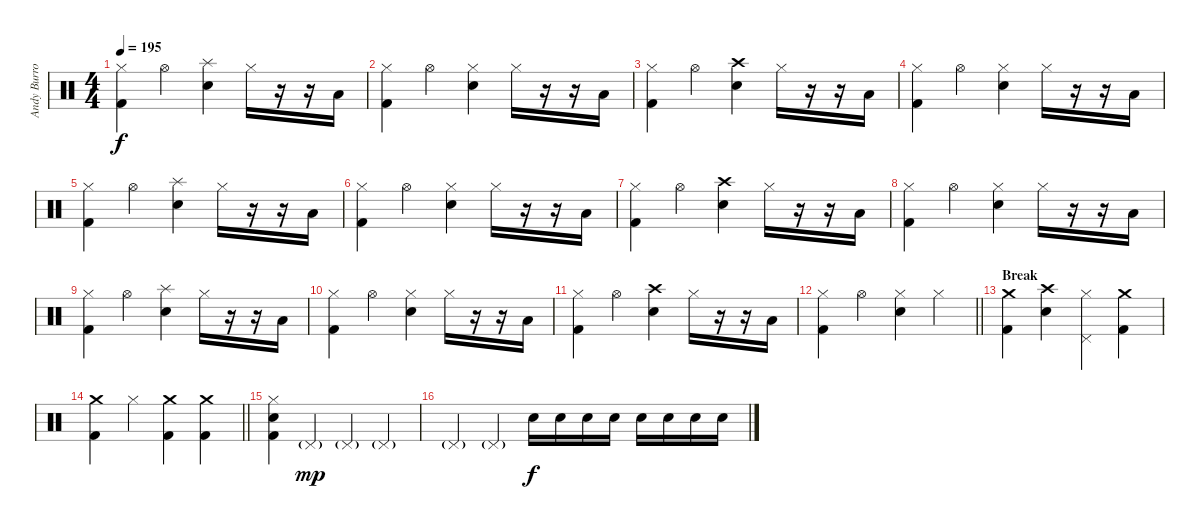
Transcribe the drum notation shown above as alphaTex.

\track ("Andy Burrows (drums)" "Andy Burro") {instrument percussion}
\staff {score}
\articulation defaults
\ts (4 4)
\tempo 195
\clef neutral
\ks c
("Hi-Hat (closed)" "Kick (hit) 2").4{dy f} "Hi-Hat (open)".4 ("Splash (hit)" "Electric Snare (hit)").4 "Hi-Hat (closed)".16 r.16 r.16 "Low Floor Tom (hit)".16 |
("Hi-Hat (closed)" "Kick (hit) 2").4 "Hi-Hat (open)".4 ("Hi-Hat (closed)" "Electric Snare (hit)").4 "Hi-Hat (closed)".16 r.16 r.16 "Low Floor Tom (hit)".16 |
("Hi-Hat (closed)" "Kick (hit) 2").4 "Hi-Hat (open)".4 ("Crash high (hit)" "Electric Snare (hit)").4 "Hi-Hat (closed)".16 r.16 r.16 "Low Floor Tom (hit)".16 |
("Hi-Hat (closed)" "Kick (hit) 2").4 "Hi-Hat (open)".4 ("Hi-Hat (closed)" "Electric Snare (hit)").4 "Hi-Hat (closed)".16 r.16 r.16 "Low Floor Tom (hit)".16 |
("Hi-Hat (closed)" "Kick (hit) 2").4 "Hi-Hat (open)".4 ("Splash (hit)" "Electric Snare (hit)").4 "Hi-Hat (closed)".16 r.16 r.16 "Low Floor Tom (hit)".16 |
("Hi-Hat (closed)" "Kick (hit) 2").4 "Hi-Hat (open)".4 ("Hi-Hat (closed)" "Electric Snare (hit)").4 "Hi-Hat (closed)".16 r.16 r.16 "Low Floor Tom (hit)".16 |
("Hi-Hat (closed)" "Kick (hit) 2").4 "Hi-Hat (open)".4 ("Crash high (hit)" "Electric Snare (hit)").4 "Hi-Hat (closed)".16 r.16 r.16 "Low Floor Tom (hit)".16 |
("Hi-Hat (closed)" "Kick (hit) 2").4 "Hi-Hat (open)".4 ("Hi-Hat (closed)" "Electric Snare (hit)").4 "Hi-Hat (closed)".16 r.16 r.16 "Low Floor Tom (hit)".16 |
("Hi-Hat (closed)" "Kick (hit) 2").4 "Hi-Hat (open)".4 ("Splash (hit)" "Electric Snare (hit)").4 "Hi-Hat (closed)".16 r.16 r.16 "Low Floor Tom (hit)".16 |
("Hi-Hat (closed)" "Kick (hit) 2").4 "Hi-Hat (open)".4 ("Hi-Hat (closed)" "Electric Snare (hit)").4 "Hi-Hat (closed)".16 r.16 r.16 "Low Floor Tom (hit)".16 |
("Hi-Hat (closed)" "Kick (hit) 2").4 "Hi-Hat (open)".4 ("Crash high (hit)" "Electric Snare (hit)").4 "Hi-Hat (closed)".16 r.16 r.16 "Low Floor Tom (hit)".16 |
\barLineRight lightlight
("Hi-Hat (closed)" "Kick (hit) 2").4 "Hi-Hat (open)".4 ("Hi-Hat (closed)" "Electric Snare (hit)").4 "Hi-Hat (closed)".4 |
\section ("" "Break")
("Crash medium (hit)" "Kick (hit) 2").4 ("Crash high (hit)" "Electric Snare (hit)").4 ("Pedal Hi-Hat (hit)" "Hi-Hat (closed)").4 ("Crash medium (hit)" "Kick (hit) 2").4 |
\barLineRight lightlight
("Crash medium (hit)" "Kick (hit) 2").4 "Hi-Hat (closed)".4 ("Crash medium (hit)" "Kick (hit) 2").4 ("Crash medium (hit)" "Kick (hit) 2").4 |
\section ("" "")
("Hi-Hat (closed)" "Electric Snare (hit)" "Kick (hit) 2").4 "Pedal Hi-Hat (hit)"{g}.4{dy mp} "Pedal Hi-Hat (hit)"{g}.4 "Pedal Hi-Hat (hit)"{g}.4 |
"Pedal Hi-Hat (hit)"{g}.4 "Pedal Hi-Hat (hit)"{g}.4 "Electric Snare (hit)".16{dy f} "Electric Snare (hit)".16 "Electric Snare (hit)".16 "Electric Snare (hit)".16 "Electric Snare (hit)".16 "Electric Snare (hit)".16 "Electric Snare (hit)".16 "Electric Snare (hit)".16
